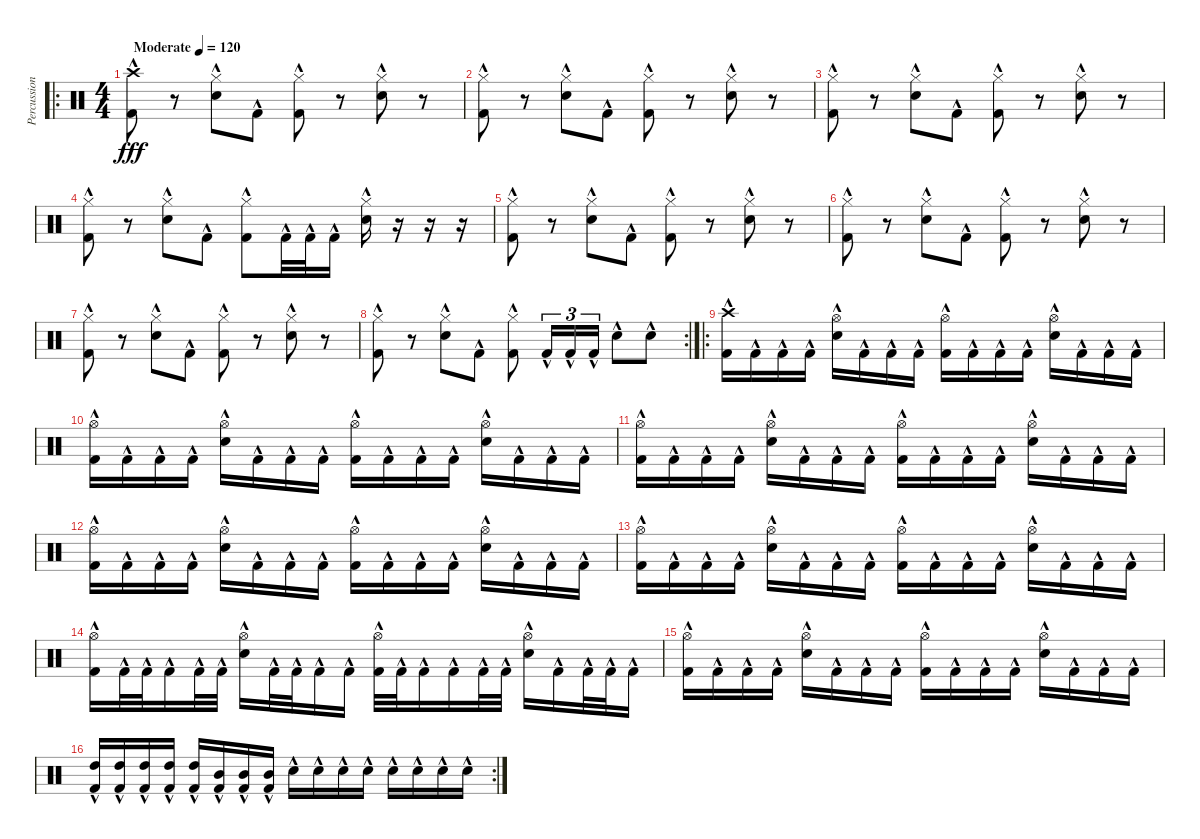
\track ("Percussion" "Percussion") {instrument percussion}
\staff {score}
\articulation defaults
\ro
\ts (4 4)
\tempo (120 "Moderate")
\clef neutral
\ks c
("Kick (hit) 2"{hac} "Crash high (hit)").8{dy fff} r.8 ("Electric Snare (hit)"{hac} "Hi-Hat (closed)").8 "Kick (hit) 2"{hac}.8 ("Kick (hit) 2"{hac} "Hi-Hat (closed)").8 r.8 ("Electric Snare (hit)"{hac} "Hi-Hat (closed)").8 r.8 |
("Kick (hit) 2"{hac} "Hi-Hat (closed)").8 r.8 ("Electric Snare (hit)"{hac} "Hi-Hat (closed)").8 "Kick (hit) 2"{hac}.8 ("Kick (hit) 2"{hac} "Hi-Hat (closed)").8 r.8 ("Electric Snare (hit)"{hac} "Hi-Hat (closed)").8 r.8 |
("Kick (hit) 2"{hac} "Hi-Hat (closed)").8 r.8 ("Electric Snare (hit)"{hac} "Hi-Hat (closed)").8 "Kick (hit) 2"{hac}.8 ("Kick (hit) 2"{hac} "Hi-Hat (closed)").8 r.8 ("Electric Snare (hit)"{hac} "Hi-Hat (closed)").8 r.8 |
("Kick (hit) 2"{hac} "Hi-Hat (closed)").8 r.8 ("Electric Snare (hit)"{hac} "Hi-Hat (closed)").8 "Kick (hit) 2"{hac}.8 ("Kick (hit) 2"{hac} "Hi-Hat (closed)").8 "Kick (hit) 2"{hac}.32 "Kick (hit) 2"{hac}.32 "Kick (hit) 2"{hac}.16 ("Electric Snare (hit)"{hac} "Hi-Hat (closed)").16 r.16 r.16 r.16 |
("Kick (hit) 2"{hac} "Hi-Hat (closed)").8 r.8 ("Electric Snare (hit)"{hac} "Hi-Hat (closed)").8 "Kick (hit) 2"{hac}.8 ("Kick (hit) 2"{hac} "Hi-Hat (closed)").8 r.8 ("Electric Snare (hit)"{hac} "Hi-Hat (closed)").8 r.8 |
("Kick (hit) 2"{hac} "Hi-Hat (closed)").8 r.8 ("Electric Snare (hit)"{hac} "Hi-Hat (closed)").8 "Kick (hit) 2"{hac}.8 ("Kick (hit) 2"{hac} "Hi-Hat (closed)").8 r.8 ("Electric Snare (hit)"{hac} "Hi-Hat (closed)").8 r.8 |
("Kick (hit) 2"{hac} "Hi-Hat (closed)").8 r.8 ("Electric Snare (hit)"{hac} "Hi-Hat (closed)").8 "Kick (hit) 2"{hac}.8 ("Kick (hit) 2"{hac} "Hi-Hat (closed)").8 r.8 ("Electric Snare (hit)"{hac} "Hi-Hat (closed)").8 r.8 |
\rc 2
("Kick (hit) 2"{hac} "Hi-Hat (closed)").8 r.8 ("Electric Snare (hit)"{hac} "Hi-Hat (closed)").8 "Kick (hit) 2"{hac}.8 ("Kick (hit) 2"{hac} "Hi-Hat (closed)").8 "Kick (hit) 2"{hac}.16{tu (3 2)} "Kick (hit) 2"{hac}.16{tu (3 2)} "Kick (hit) 2"{hac}.16{tu (3 2)} "Electric Snare (hit)"{hac}.8 "Electric Snare (hit)"{hac}.8 |
\ro
("Crash high (hit)" "Kick (hit) 2"{hac}).16 "Kick (hit) 2"{hac}.16 "Kick (hit) 2"{hac}.16 "Kick (hit) 2"{hac}.16 ("Hi-Hat (open)" "Electric Snare (hit)"{hac}).16 "Kick (hit) 2"{hac}.16 "Kick (hit) 2"{hac}.16 "Kick (hit) 2"{hac}.16 ("Hi-Hat (open)" "Kick (hit) 2"{hac}).16 "Kick (hit) 2"{hac}.16 "Kick (hit) 2"{hac}.16 "Kick (hit) 2"{hac}.16 ("Hi-Hat (open)" "Electric Snare (hit)"{hac}).16 "Kick (hit) 2"{hac}.16 "Kick (hit) 2"{hac}.16 "Kick (hit) 2"{hac}.16 |
("Hi-Hat (open)" "Kick (hit) 2"{hac}).16 "Kick (hit) 2"{hac}.16 "Kick (hit) 2"{hac}.16 "Kick (hit) 2"{hac}.16 ("Hi-Hat (open)" "Electric Snare (hit)"{hac}).16 "Kick (hit) 2"{hac}.16 "Kick (hit) 2"{hac}.16 "Kick (hit) 2"{hac}.16 ("Hi-Hat (open)" "Kick (hit) 2"{hac}).16 "Kick (hit) 2"{hac}.16 "Kick (hit) 2"{hac}.16 "Kick (hit) 2"{hac}.16 ("Hi-Hat (open)" "Electric Snare (hit)"{hac}).16 "Kick (hit) 2"{hac}.16 "Kick (hit) 2"{hac}.16 "Kick (hit) 2"{hac}.16 |
("Hi-Hat (open)" "Kick (hit) 2"{hac}).16 "Kick (hit) 2"{hac}.16 "Kick (hit) 2"{hac}.16 "Kick (hit) 2"{hac}.16 ("Hi-Hat (open)" "Electric Snare (hit)"{hac}).16 "Kick (hit) 2"{hac}.16 "Kick (hit) 2"{hac}.16 "Kick (hit) 2"{hac}.16 ("Hi-Hat (open)" "Kick (hit) 2"{hac}).16 "Kick (hit) 2"{hac}.16 "Kick (hit) 2"{hac}.16 "Kick (hit) 2"{hac}.16 ("Hi-Hat (open)" "Electric Snare (hit)"{hac}).16 "Kick (hit) 2"{hac}.16 "Kick (hit) 2"{hac}.16 "Kick (hit) 2"{hac}.16 |
("Hi-Hat (open)" "Kick (hit) 2"{hac}).16 "Kick (hit) 2"{hac}.16 "Kick (hit) 2"{hac}.16 "Kick (hit) 2"{hac}.16 ("Hi-Hat (open)" "Electric Snare (hit)"{hac}).16 "Kick (hit) 2"{hac}.16 "Kick (hit) 2"{hac}.16 "Kick (hit) 2"{hac}.16 ("Hi-Hat (open)" "Kick (hit) 2"{hac}).16 "Kick (hit) 2"{hac}.16 "Kick (hit) 2"{hac}.16 "Kick (hit) 2"{hac}.16 ("Hi-Hat (open)" "Electric Snare (hit)"{hac}).16 "Kick (hit) 2"{hac}.16 "Kick (hit) 2"{hac}.16 "Kick (hit) 2"{hac}.16 |
("Hi-Hat (open)" "Kick (hit) 2"{hac}).16 "Kick (hit) 2"{hac}.16 "Kick (hit) 2"{hac}.16 "Kick (hit) 2"{hac}.16 ("Hi-Hat (open)" "Electric Snare (hit)"{hac}).16 "Kick (hit) 2"{hac}.16 "Kick (hit) 2"{hac}.16 "Kick (hit) 2"{hac}.16 ("Hi-Hat (open)" "Kick (hit) 2"{hac}).16 "Kick (hit) 2"{hac}.16 "Kick (hit) 2"{hac}.16 "Kick (hit) 2"{hac}.16 ("Hi-Hat (open)" "Electric Snare (hit)"{hac}).16 "Kick (hit) 2"{hac}.16 "Kick (hit) 2"{hac}.16 "Kick (hit) 2"{hac}.16 |
("Kick (hit) 2"{hac} "Hi-Hat (open)").16 "Kick (hit) 2"{hac}.32 "Kick (hit) 2"{hac}.32 "Kick (hit) 2"{hac}.16 "Kick (hit) 2"{hac}.32 "Kick (hit) 2"{hac}.32 ("Electric Snare (hit)"{hac} "Hi-Hat (open)").16 "Kick (hit) 2"{hac}.32 "Kick (hit) 2"{hac}.32 "Kick (hit) 2"{hac}.16 "Kick (hit) 2"{hac}.16 ("Kick (hit) 2"{hac} "Hi-Hat (open)").32 "Kick (hit) 2"{hac}.32 "Kick (hit) 2"{hac}.16 "Kick (hit) 2"{hac}.16 "Kick (hit) 2"{hac}.32 "Kick (hit) 2"{hac}.32 ("Electric Snare (hit)"{hac} "Hi-Hat (open)").16 "Kick (hit) 2"{hac}.16 "Kick (hit) 2"{hac}.32 "Kick (hit) 2"{hac}.32 "Kick (hit) 2"{hac}.16 |
("Hi-Hat (open)" "Kick (hit) 2"{hac}).16 "Kick (hit) 2"{hac}.16 "Kick (hit) 2"{hac}.16 "Kick (hit) 2"{hac}.16 ("Hi-Hat (open)" "Electric Snare (hit)"{hac}).16 "Kick (hit) 2"{hac}.16 "Kick (hit) 2"{hac}.16 "Kick (hit) 2"{hac}.16 ("Hi-Hat (open)" "Kick (hit) 2"{hac}).16 "Kick (hit) 2"{hac}.16 "Kick (hit) 2"{hac}.16 "Kick (hit) 2"{hac}.16 ("Hi-Hat (open)" "Electric Snare (hit)"{hac}).16 "Kick (hit) 2"{hac}.16 "Kick (hit) 2"{hac}.16 "Kick (hit) 2"{hac}.16 |
\rc 2
("High Tom (hit)" "Kick (hit) 2"{hac}).16 ("High Tom (hit)" "Kick (hit) 2"{hac}).16 ("High Tom (hit)" "Kick (hit) 2"{hac}).16 ("High Tom (hit)" "Kick (hit) 2"{hac}).16 ("High Tom (hit)" "Kick (hit) 2"{hac}).16 ("Mid Tom (hit)" "Kick (hit) 2"{hac}).16 ("Mid Tom (hit)" "Kick (hit) 2"{hac}).16 ("Mid Tom (hit)" "Kick (hit) 2"{hac}).16 "Electric Snare (hit)"{hac}.16 "Electric Snare (hit)"{hac}.16 "Electric Snare (hit)"{hac}.16 "Electric Snare (hit)"{hac}.16 "Electric Snare (hit)"{hac}.16 "Electric Snare (hit)"{hac}.16 "Electric Snare (hit)"{hac}.16 "Electric Snare (hit)"{hac}.16
